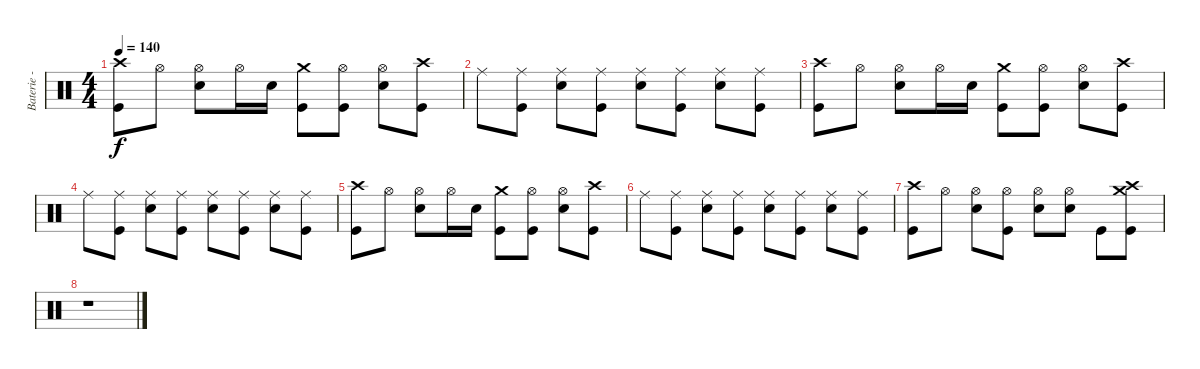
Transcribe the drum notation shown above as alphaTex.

\track ("Baterie - Dave Grohl" "Baterie - ") {instrument percussion}
\staff {score}
\articulation defaults
\ts (4 4)
\tempo 140
\clef neutral
\ks c
("Crash high (hit)" "Kick (hit)").8{dy f} "Hi-Hat (open)".8 ("Hi-Hat (open)" "Electric Snare (hit)").8 "Hi-Hat (open)".16 "Electric Snare (hit)".16 ("Crash medium (hit)" "Kick (hit)").8 ("Hi-Hat (open)" "Kick (hit)").8 ("Hi-Hat (open)" "Electric Snare (hit)").8 ("Crash high (hit)" "Kick (hit)").8 |
"Ride (middle)".8 ("Ride (middle)" "Kick (hit)").8 ("Ride (middle)" "Electric Snare (hit)").8 ("Ride (middle)" "Kick (hit)").8 ("Ride (middle)" "Electric Snare (hit)").8 ("Ride (middle)" "Kick (hit)").8 ("Ride (middle)" "Electric Snare (hit)").8 ("Ride (middle)" "Kick (hit)").8 |
("Crash high (hit)" "Kick (hit)").8 "Hi-Hat (open)".8 ("Hi-Hat (open)" "Electric Snare (hit)").8 "Hi-Hat (open)".16 "Electric Snare (hit)".16 ("Crash medium (hit)" "Kick (hit)").8 ("Hi-Hat (open)" "Kick (hit)").8 ("Hi-Hat (open)" "Electric Snare (hit)").8 ("Crash high (hit)" "Kick (hit)").8 |
"Ride (middle)".8 ("Ride (middle)" "Kick (hit)").8 ("Ride (middle)" "Electric Snare (hit)").8 ("Ride (middle)" "Kick (hit)").8 ("Ride (middle)" "Electric Snare (hit)").8 ("Ride (middle)" "Kick (hit)").8 ("Ride (middle)" "Electric Snare (hit)").8 ("Ride (middle)" "Kick (hit)").8 |
("Crash high (hit)" "Kick (hit)").8 "Hi-Hat (open)".8 ("Hi-Hat (open)" "Electric Snare (hit)").8 "Hi-Hat (open)".16 "Electric Snare (hit)".16 ("Crash medium (hit)" "Kick (hit)").8 ("Hi-Hat (open)" "Kick (hit)").8 ("Hi-Hat (open)" "Electric Snare (hit)").8 ("Crash high (hit)" "Kick (hit)").8 |
"Ride (middle)".8 ("Ride (middle)" "Kick (hit)").8 ("Ride (middle)" "Electric Snare (hit)").8 ("Ride (middle)" "Kick (hit)").8 ("Ride (middle)" "Electric Snare (hit)").8 ("Ride (middle)" "Kick (hit)").8 ("Ride (middle)" "Electric Snare (hit)").8 ("Ride (middle)" "Kick (hit)").8 |
("Crash high (hit)" "Kick (hit)").8 "Hi-Hat (open)".8 ("Hi-Hat (open)" "Electric Snare (hit)").8 ("Hi-Hat (open)" "Kick (hit)").8 ("Hi-Hat (open)" "Electric Snare (hit)").8 ("Hi-Hat (open)" "Electric Snare (hit)").8 "Kick (hit)".8 ("Crash medium (hit)" "Crash high (hit)" "Kick (hit)").8 |
r.1
